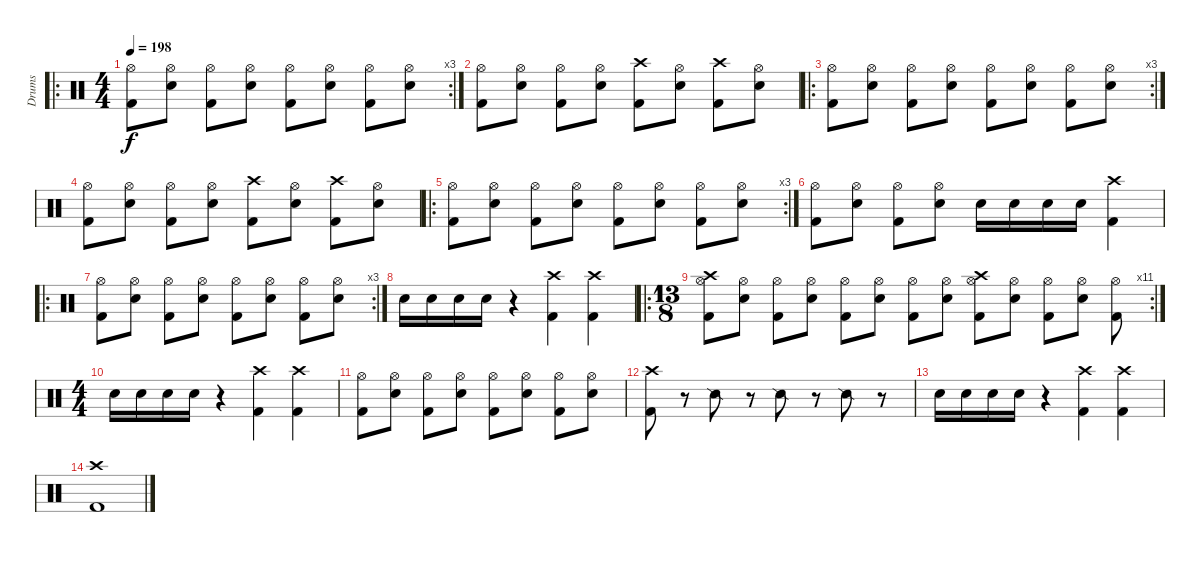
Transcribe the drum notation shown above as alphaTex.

\track ("Drums" "Drums") {instrument percussion}
\staff {score}
\articulation defaults
\ro
\rc 3
\ts (4 4)
\tempo 198
\clef neutral
\ks c
("Hi-Hat (open)" "Kick (hit) 2").8{dy f} ("Hi-Hat (open)" "Snare (hit) 2").8 ("Hi-Hat (open)" "Kick (hit) 2").8 ("Hi-Hat (open)" "Snare (hit) 2").8 ("Hi-Hat (open)" "Kick (hit) 2").8 ("Hi-Hat (open)" "Snare (hit) 2").8 ("Hi-Hat (open)" "Kick (hit) 2").8 ("Hi-Hat (open)" "Snare (hit) 2").8 |
("Hi-Hat (open)" "Kick (hit) 2").8 ("Hi-Hat (open)" "Snare (hit) 2").8 ("Hi-Hat (open)" "Kick (hit) 2").8 ("Hi-Hat (open)" "Snare (hit) 2").8 ("Crash high (hit)" "Kick (hit) 2").8 ("Hi-Hat (open)" "Snare (hit) 2").8 ("Crash high (hit)" "Kick (hit) 2").8 ("Hi-Hat (open)" "Snare (hit) 2").8 |
\ro
\rc 3
("Hi-Hat (open)" "Kick (hit) 2").8 ("Hi-Hat (open)" "Snare (hit) 2").8 ("Hi-Hat (open)" "Kick (hit) 2").8 ("Hi-Hat (open)" "Snare (hit) 2").8 ("Hi-Hat (open)" "Kick (hit) 2").8 ("Hi-Hat (open)" "Snare (hit) 2").8 ("Hi-Hat (open)" "Kick (hit) 2").8 ("Hi-Hat (open)" "Snare (hit) 2").8 |
("Hi-Hat (open)" "Kick (hit) 2").8 ("Hi-Hat (open)" "Snare (hit) 2").8 ("Hi-Hat (open)" "Kick (hit) 2").8 ("Hi-Hat (open)" "Snare (hit) 2").8 ("Crash high (hit)" "Kick (hit) 2").8 ("Hi-Hat (open)" "Snare (hit) 2").8 ("Crash high (hit)" "Kick (hit) 2").8 ("Hi-Hat (open)" "Snare (hit) 2").8 |
\ro
\rc 3
("Hi-Hat (open)" "Kick (hit) 2").8 ("Hi-Hat (open)" "Snare (hit) 2").8 ("Hi-Hat (open)" "Kick (hit) 2").8 ("Hi-Hat (open)" "Snare (hit) 2").8 ("Hi-Hat (open)" "Kick (hit) 2").8 ("Hi-Hat (open)" "Snare (hit) 2").8 ("Hi-Hat (open)" "Kick (hit) 2").8 ("Hi-Hat (open)" "Snare (hit) 2").8 |
("Hi-Hat (open)" "Kick (hit) 2").8 ("Hi-Hat (open)" "Snare (hit) 2").8 ("Hi-Hat (open)" "Kick (hit) 2").8 ("Hi-Hat (open)" "Snare (hit) 2").8 "Snare (hit) 2".16 "Snare (hit) 2".16 "Snare (hit) 2".16 "Snare (hit) 2".16 ("Crash high (hit)" "Kick (hit) 2").4 |
\ro
\rc 3
("Hi-Hat (open)" "Kick (hit) 2").8 ("Hi-Hat (open)" "Snare (hit) 2").8 ("Hi-Hat (open)" "Kick (hit) 2").8 ("Hi-Hat (open)" "Snare (hit) 2").8 ("Hi-Hat (open)" "Kick (hit) 2").8 ("Hi-Hat (open)" "Snare (hit) 2").8 ("Hi-Hat (open)" "Kick (hit) 2").8 ("Hi-Hat (open)" "Snare (hit) 2").8 |
"Snare (hit) 2".16 "Snare (hit) 2".16 "Snare (hit) 2".16 "Snare (hit) 2".16 r.4 ("Crash high (hit)" "Kick (hit) 2").4 ("Crash high (hit)" "Kick (hit) 2").4 |
\ro
\rc 11
\ts (13 8)
("Crash high (hit)" "Hi-Hat (open)" "Kick (hit) 2").8 ("Hi-Hat (open)" "Snare (hit) 2").8 ("Hi-Hat (open)" "Kick (hit) 2").8 ("Hi-Hat (open)" "Snare (hit) 2").8 ("Hi-Hat (open)" "Kick (hit) 2").8 ("Hi-Hat (open)" "Snare (hit) 2").8 ("Hi-Hat (open)" "Kick (hit) 2").8 ("Hi-Hat (open)" "Snare (hit) 2").8 ("Crash high (hit)" "Hi-Hat (open)" "Kick (hit) 2").8 ("Hi-Hat (open)" "Snare (hit) 2").8 ("Hi-Hat (open)" "Kick (hit) 2").8 ("Hi-Hat (open)" "Snare (hit) 2").8 ("Hi-Hat (open)" "Kick (hit) 2").8 |
\ts (4 4)
"Snare (hit) 2".16 "Snare (hit) 2".16 "Snare (hit) 2".16 "Snare (hit) 2".16 r.4 ("Crash high (hit)" "Kick (hit) 2").4 ("Crash high (hit)" "Kick (hit) 2").4 |
("Hi-Hat (open)" "Kick (hit) 2").8 ("Hi-Hat (open)" "Snare (hit) 2").8 ("Hi-Hat (open)" "Kick (hit) 2").8 ("Hi-Hat (open)" "Snare (hit) 2").8 ("Hi-Hat (open)" "Kick (hit) 2").8 ("Hi-Hat (open)" "Snare (hit) 2").8 ("Hi-Hat (open)" "Kick (hit) 2").8 ("Hi-Hat (open)" "Snare (hit) 2").8 |
("Crash high (hit)" "Kick (hit) 2").8 r.8 "Snare (side stick) 2".8 r.8 "Snare (side stick) 2".8 r.8 "Snare (side stick) 2".8 r.8 |
"Snare (hit) 2".16 "Snare (hit) 2".16 "Snare (hit) 2".16 "Snare (hit) 2".16 r.4 ("Crash high (hit)" "Kick (hit) 2").4 ("Crash high (hit)" "Kick (hit) 2").4 |
("Crash high (hit)" "Kick (hit) 2").1
